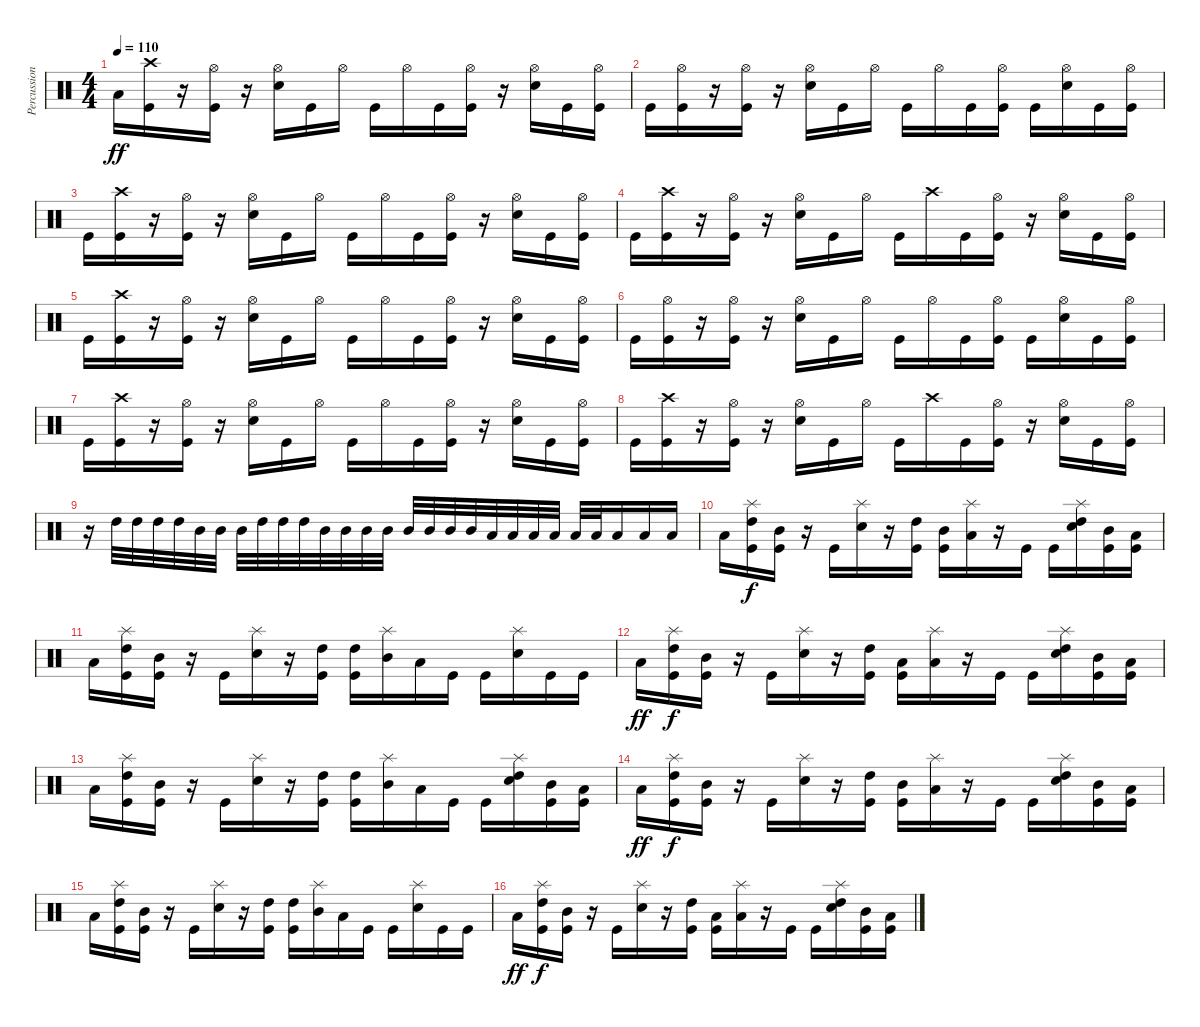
\track ("Percussion" "Percussion") {instrument percussion}
\staff {score}
\articulation defaults
\ts (4 4)
\tempo 110
\clef neutral
\ks c "Low Tom (hit)".16{dy ff}
("Crash high (hit)" "Kick (hit)").16 r.16 ("Hi-Hat (open)" "Kick (hit)").16 r.16 ("Hi-Hat (open)" "Electric Snare (hit)").16 "Kick (hit)".16 "Hi-Hat (open)".16 "Kick (hit)".16 "Hi-Hat (open)".16 "Kick (hit)".16 ("Hi-Hat (open)" "Kick (hit)").16 r.16 ("Hi-Hat (open)" "Electric Snare (hit)").16 "Kick (hit)".16 ("Hi-Hat (open)" "Kick (hit)").16 |
"Kick (hit)".16 ("Hi-Hat (open)" "Kick (hit)").16 r.16 ("Hi-Hat (open)" "Kick (hit)").16 r.16 ("Hi-Hat (open)" "Electric Snare (hit)").16 "Kick (hit)".16 "Hi-Hat (open)".16 "Kick (hit)".16 "Hi-Hat (open)".16 "Kick (hit)".16 ("Hi-Hat (open)" "Kick (hit)").16 "Kick (hit)".16 ("Hi-Hat (open)" "Electric Snare (hit)").16 "Kick (hit)".16 ("Hi-Hat (open)" "Kick (hit)").16 |
"Kick (hit)".16 ("Crash high (hit)" "Kick (hit)").16 r.16 ("Hi-Hat (open)" "Kick (hit)").16 r.16 ("Hi-Hat (open)" "Electric Snare (hit)").16 "Kick (hit)".16 "Hi-Hat (open)".16 "Kick (hit)".16 "Hi-Hat (open)".16 "Kick (hit)".16 ("Hi-Hat (open)" "Kick (hit)").16 r.16 ("Hi-Hat (open)" "Electric Snare (hit)").16 "Kick (hit)".16 ("Hi-Hat (open)" "Kick (hit)").16 |
"Kick (hit)".16 ("Crash high (hit)" "Kick (hit)").16 r.16 ("Hi-Hat (open)" "Kick (hit)").16 r.16 ("Hi-Hat (open)" "Electric Snare (hit)").16 "Kick (hit)".16 "Hi-Hat (open)".16 "Kick (hit)".16 "Crash high (hit)".16 "Kick (hit)".16 ("Hi-Hat (open)" "Kick (hit)").16 r.16 ("Hi-Hat (open)" "Electric Snare (hit)").16 "Kick (hit)".16 ("Hi-Hat (open)" "Kick (hit)").16 |
"Kick (hit)".16 ("Crash high (hit)" "Kick (hit)").16 r.16 ("Hi-Hat (open)" "Kick (hit)").16 r.16 ("Hi-Hat (open)" "Electric Snare (hit)").16 "Kick (hit)".16 "Hi-Hat (open)".16 "Kick (hit)".16 "Hi-Hat (open)".16 "Kick (hit)".16 ("Hi-Hat (open)" "Kick (hit)").16 r.16 ("Hi-Hat (open)" "Electric Snare (hit)").16 "Kick (hit)".16 ("Hi-Hat (open)" "Kick (hit)").16 |
"Kick (hit)".16 ("Hi-Hat (open)" "Kick (hit)").16 r.16 ("Hi-Hat (open)" "Kick (hit)").16 r.16 ("Hi-Hat (open)" "Electric Snare (hit)").16 "Kick (hit)".16 "Hi-Hat (open)".16 "Kick (hit)".16 "Hi-Hat (open)".16 "Kick (hit)".16 ("Hi-Hat (open)" "Kick (hit)").16 "Kick (hit)".16 ("Hi-Hat (open)" "Electric Snare (hit)").16 "Kick (hit)".16 ("Hi-Hat (open)" "Kick (hit)").16 |
"Kick (hit)".16 ("Crash high (hit)" "Kick (hit)").16 r.16 ("Hi-Hat (open)" "Kick (hit)").16 r.16 ("Hi-Hat (open)" "Electric Snare (hit)").16 "Kick (hit)".16 "Hi-Hat (open)".16 "Kick (hit)".16 "Hi-Hat (open)".16 "Kick (hit)".16 ("Hi-Hat (open)" "Kick (hit)").16 r.16 ("Hi-Hat (open)" "Electric Snare (hit)").16 "Kick (hit)".16 ("Hi-Hat (open)" "Kick (hit)").16 |
"Kick (hit)".16 ("Crash high (hit)" "Kick (hit)").16 r.16 ("Hi-Hat (open)" "Kick (hit)").16 r.16 ("Hi-Hat (open)" "Electric Snare (hit)").16 "Kick (hit)".16 "Hi-Hat (open)".16 "Kick (hit)".16 "Crash high (hit)".16 "Kick (hit)".16 ("Hi-Hat (open)" "Kick (hit)").16 r.16 ("Hi-Hat (open)" "Electric Snare (hit)").16 "Kick (hit)".16 ("Hi-Hat (open)" "Kick (hit)").16 |
r.16 "High Tom (hit)".32 "High Tom (hit)".32 "High Tom (hit)".32 "High Tom (hit)".32 "Mid Tom (hit)".32 "Mid Tom (hit)".32 "Mid Tom (hit)".32 "High Tom (hit)".32 "High Tom (hit)".32 "High Tom (hit)".32 "Mid Tom (hit)".32 "Mid Tom (hit)".32 "Mid Tom (hit)".32 "Mid Tom (hit)".32 "Mid Tom (hit)".32 "Mid Tom (hit)".32 "Mid Tom (hit)".32 "Mid Tom (hit)".32 "Low Tom (hit)".32 "Low Tom (hit)".32 "Low Tom (hit)".32 "Low Tom (hit)".32 "Low Tom (hit)".32 "Low Tom (hit)".32 "Low Floor Tom (hit)".16 "Low Floor Tom (hit)".16 "Low Floor Tom (hit)".16 |
"Low Floor Tom (hit)".16 ("Splash (hit)" "High Tom (hit)" "Kick (hit)").16{dy f} ("Mid Tom (hit)" "Kick (hit)").16 r.16 "Kick (hit)".16 ("Splash (hit)" "Electric Snare (hit)").16 r.16 ("High Tom (hit)" "Kick (hit)").16 ("Mid Tom (hit)" "Kick (hit)").16 ("Splash (hit)" "Low Tom (hit)").16 r.16 "Kick (hit)".16 "Kick (hit)".16 ("Splash (hit)" "High Tom (hit)" "Electric Snare (hit)").16 ("Mid Tom (hit)" "Kick (hit)").16 ("Low Tom (hit)" "Kick (hit)").16 |
"Low Floor Tom (hit)".16 ("Splash (hit)" "High Tom (hit)" "Kick (hit)").16 ("Mid Tom (hit)" "Kick (hit)").16 r.16 "Kick (hit)".16 ("Splash (hit)" "Electric Snare (hit)").16 r.16 ("High Tom (hit)" "Kick (hit)").16 ("High Tom (hit)" "Kick (hit)").16 ("Splash (hit)" "Mid Tom (hit)").16 "Low Floor Tom (hit)".16 "Kick (hit)".16 "Kick (hit)".16 ("Splash (hit)" "Electric Snare (hit)").16 "Kick (hit)".16 "Kick (hit)".16 |
"Low Floor Tom (hit)".16{dy ff} ("Splash (hit)" "High Tom (hit)" "Kick (hit)").16{dy f} ("Mid Tom (hit)" "Kick (hit)").16 r.16 "Kick (hit)".16 ("Splash (hit)" "Electric Snare (hit)").16 r.16 ("High Tom (hit)" "Kick (hit)").16 ("Low Tom (hit)" "Kick (hit)").16 ("Splash (hit)" "Low Floor Tom (hit)").16 r.16 "Kick (hit)".16 "Kick (hit)".16 ("Splash (hit)" "High Tom (hit)" "Electric Snare (hit)").16 ("Mid Tom (hit)" "Kick (hit)").16 ("Low Tom (hit)" "Kick (hit)").16 |
"Low Floor Tom (hit)".16 ("Splash (hit)" "High Tom (hit)" "Kick (hit)").16 ("Mid Tom (hit)" "Kick (hit)").16 r.16 "Kick (hit)".16 ("Splash (hit)" "Electric Snare (hit)").16 r.16 ("High Tom (hit)" "Kick (hit)").16 ("High Tom (hit)" "Kick (hit)").16 ("Splash (hit)" "Mid Tom (hit)").16 "Low Floor Tom (hit)".16 "Kick (hit)".16 "Kick (hit)".16 ("Splash (hit)" "High Tom (hit)" "Electric Snare (hit)").16 ("Mid Tom (hit)" "Kick (hit)").16 ("Low Tom (hit)" "Kick (hit)").16 |
"Low Floor Tom (hit)".16{dy ff} ("Splash (hit)" "High Tom (hit)" "Kick (hit)").16{dy f} ("Mid Tom (hit)" "Kick (hit)").16 r.16 "Kick (hit)".16 ("Splash (hit)" "Electric Snare (hit)").16 r.16 ("High Tom (hit)" "Kick (hit)").16 ("Mid Tom (hit)" "Kick (hit)").16 ("Splash (hit)" "Low Tom (hit)").16 r.16 "Kick (hit)".16 "Kick (hit)".16 ("Splash (hit)" "High Tom (hit)" "Electric Snare (hit)").16 ("Mid Tom (hit)" "Kick (hit)").16 ("Low Tom (hit)" "Kick (hit)").16 |
"Low Floor Tom (hit)".16 ("Splash (hit)" "High Tom (hit)" "Kick (hit)").16 ("Mid Tom (hit)" "Kick (hit)").16 r.16 "Kick (hit)".16 ("Splash (hit)" "Electric Snare (hit)").16 r.16 ("High Tom (hit)" "Kick (hit)").16 ("High Tom (hit)" "Kick (hit)").16 ("Splash (hit)" "Mid Tom (hit)").16 "Low Floor Tom (hit)".16 "Kick (hit)".16 "Kick (hit)".16 ("Splash (hit)" "Electric Snare (hit)").16 "Kick (hit)".16 "Kick (hit)".16 |
"Low Floor Tom (hit)".16{dy ff} ("Splash (hit)" "High Tom (hit)" "Kick (hit)").16{dy f} ("Mid Tom (hit)" "Kick (hit)").16 r.16 "Kick (hit)".16 ("Splash (hit)" "Electric Snare (hit)").16 r.16 ("High Tom (hit)" "Kick (hit)").16 ("Low Tom (hit)" "Kick (hit)").16 ("Splash (hit)" "Low Floor Tom (hit)").16 r.16 "Kick (hit)".16 "Kick (hit)".16 ("Splash (hit)" "High Tom (hit)" "Electric Snare (hit)").16 ("Mid Tom (hit)" "Kick (hit)").16 ("Low Tom (hit)" "Kick (hit)").16
